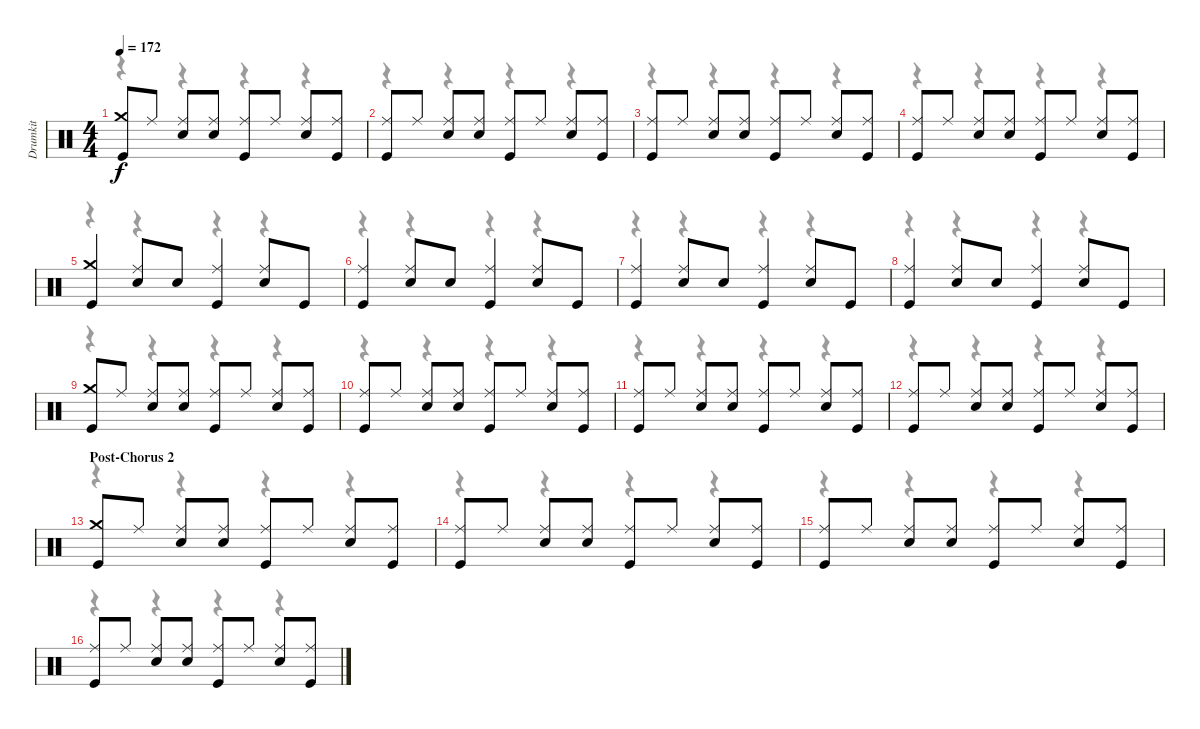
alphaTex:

\track ("Drumkit" "Drumkit") {instrument percussion}
\staff {score}
\articulation defaults
\voice
\ts (4 4)
\tempo 172
\clef neutral
\ks c
("Crash medium (hit)" "Kick (hit)").8{dy f} "Ride (middle)".8 ("Ride (middle)" "Snare (hit) 2").8 ("Ride (middle)" "Snare (hit) 2").8 ("Ride (middle)" "Kick (hit)").8 "Ride (middle)".8 ("Ride (middle)" "Snare (hit) 2").8 ("Ride (middle)" "Kick (hit)").8 |
("Ride (middle)" "Kick (hit)").8 "Ride (middle)".8 ("Ride (middle)" "Snare (hit) 2").8 ("Ride (middle)" "Snare (hit) 2").8 ("Ride (middle)" "Kick (hit)").8 "Ride (middle)".8 ("Ride (middle)" "Snare (hit) 2").8 ("Ride (middle)" "Kick (hit)").8 |
("Ride (middle)" "Kick (hit)").8 "Ride (middle)".8 ("Ride (middle)" "Snare (hit) 2").8 ("Ride (middle)" "Snare (hit) 2").8 ("Ride (middle)" "Kick (hit)").8 "Ride (middle)".8 ("Ride (middle)" "Snare (hit) 2").8 ("Ride (middle)" "Kick (hit)").8 |
("Ride (middle)" "Kick (hit)").8 "Ride (middle)".8 ("Ride (middle)" "Snare (hit) 2").8 ("Ride (middle)" "Snare (hit) 2").8 ("Ride (middle)" "Kick (hit)").8 "Ride (middle)".8 ("Ride (middle)" "Snare (hit) 2").8 ("Ride (middle)" "Kick (hit)").8 |
("Crash medium (hit)" "Kick (hit)").4 ("Ride (middle)" "Snare (hit) 2").8 "Snare (hit) 2".8 ("Ride (middle)" "Kick (hit)").4 ("Ride (middle)" "Snare (hit) 2").8 "Kick (hit)".8 |
("Ride (middle)" "Kick (hit)").4 ("Ride (middle)" "Snare (hit) 2").8 "Snare (hit) 2".8 ("Ride (middle)" "Kick (hit)").4 ("Ride (middle)" "Snare (hit) 2").8 "Kick (hit)".8 |
("Ride (middle)" "Kick (hit)").4 ("Ride (middle)" "Snare (hit) 2").8 "Snare (hit) 2".8 ("Ride (middle)" "Kick (hit)").4 ("Ride (middle)" "Snare (hit) 2").8 "Kick (hit)".8 |
("Ride (middle)" "Kick (hit)").4 ("Ride (middle)" "Snare (hit) 2").8 "Snare (hit) 2".8 ("Ride (middle)" "Kick (hit)").4 ("Ride (middle)" "Snare (hit) 2").8 "Kick (hit)".8 |
("Crash medium (hit)" "Kick (hit)").8 "Ride (middle)".8 ("Ride (middle)" "Snare (hit) 2").8 ("Ride (middle)" "Snare (hit) 2").8 ("Ride (middle)" "Kick (hit)").8 "Ride (middle)".8 ("Ride (middle)" "Snare (hit) 2").8 ("Ride (middle)" "Kick (hit)").8 |
("Ride (middle)" "Kick (hit)").8 "Ride (middle)".8 ("Ride (middle)" "Snare (hit) 2").8 ("Ride (middle)" "Snare (hit) 2").8 ("Ride (middle)" "Kick (hit)").8 "Ride (middle)".8 ("Ride (middle)" "Snare (hit) 2").8 ("Ride (middle)" "Kick (hit)").8 |
("Ride (middle)" "Kick (hit)").8 "Ride (middle)".8 ("Ride (middle)" "Snare (hit) 2").8 ("Ride (middle)" "Snare (hit) 2").8 ("Ride (middle)" "Kick (hit)").8 "Ride (middle)".8 ("Ride (middle)" "Snare (hit) 2").8 ("Ride (middle)" "Kick (hit)").8 |
("Ride (middle)" "Kick (hit)").8 "Ride (middle)".8 ("Ride (middle)" "Snare (hit) 2").8 ("Ride (middle)" "Snare (hit) 2").8 ("Ride (middle)" "Kick (hit)").8 "Ride (middle)".8 ("Ride (middle)" "Snare (hit) 2").8 ("Ride (middle)" "Kick (hit)").8 |
\section ("" "Post-Chorus 2")
("Crash medium (hit)" "Kick (hit)").8 "Ride (middle)".8 ("Ride (middle)" "Snare (hit) 2").8 ("Ride (middle)" "Snare (hit) 2").8 ("Ride (middle)" "Kick (hit)").8 "Ride (middle)".8 ("Ride (middle)" "Snare (hit) 2").8 ("Ride (middle)" "Kick (hit)").8 |
("Ride (middle)" "Kick (hit)").8 "Ride (middle)".8 ("Ride (middle)" "Snare (hit) 2").8 ("Ride (middle)" "Snare (hit) 2").8 ("Ride (middle)" "Kick (hit)").8 "Ride (middle)".8 ("Ride (middle)" "Snare (hit) 2").8 ("Ride (middle)" "Kick (hit)").8 |
("Ride (middle)" "Kick (hit)").8 "Ride (middle)".8 ("Ride (middle)" "Snare (hit) 2").8 ("Ride (middle)" "Snare (hit) 2").8 ("Ride (middle)" "Kick (hit)").8 "Ride (middle)".8 ("Ride (middle)" "Snare (hit) 2").8 ("Ride (middle)" "Kick (hit)").8 |
("Ride (middle)" "Kick (hit)").8 "Ride (middle)".8 ("Ride (middle)" "Snare (hit) 2").8 ("Ride (middle)" "Snare (hit) 2").8 ("Ride (middle)" "Kick (hit)").8 "Ride (middle)".8 ("Ride (middle)" "Snare (hit) 2").8 ("Ride (middle)" "Kick (hit)").8
\voice
\clef neutral
\ottava regular
\simile none
\ks c
r.4{dy f} r.4 r.4 r.4 |
r.4 r.4 r.4 r.4 |
r.4 r.4 r.4 r.4 |
r.4 r.4 r.4 r.4 |
r.4 r.4 r.4 r.4 |
r.4 r.4 r.4 r.4 |
r.4 r.4 r.4 r.4 |
r.4 r.4 r.4 r.4 |
r.4 r.4 r.4 r.4 |
r.4 r.4 r.4 r.4 |
r.4 r.4 r.4 r.4 |
r.4 r.4 r.4 r.4 |
r.4 r.4 r.4 r.4 |
r.4 r.4 r.4 r.4 |
r.4 r.4 r.4 r.4 |
r.4 r.4 r.4 r.4
